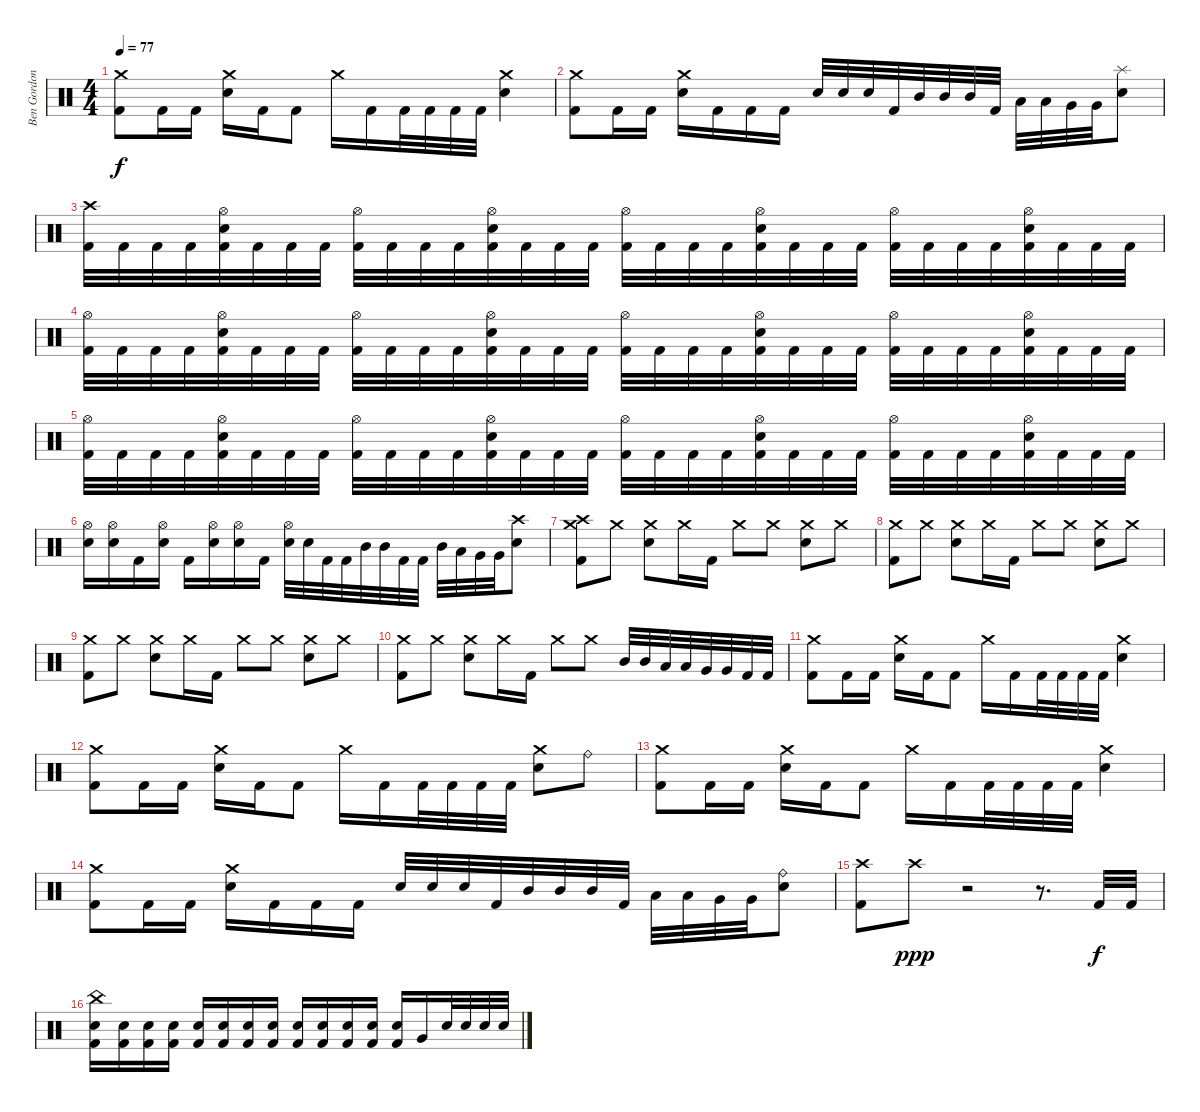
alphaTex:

\track ("Ben Gordon" "Ben Gordon") {instrument percussion}
\staff {score}
\articulation defaults
\ts (4 4)
\tempo 77
\clef neutral
\ks c
("Crash medium (hit)" "Kick (hit) 2").8{dy f} "Kick (hit) 2".16 "Kick (hit) 2".16 ("Crash medium (hit)" "Electric Snare (hit)").16 "Kick (hit) 2".16 "Kick (hit) 2".8 "Crash medium (hit)".16 "Kick (hit) 2".16 "Kick (hit) 2".32 "Kick (hit) 2".32 "Kick (hit) 2".32 "Kick (hit) 2".32 ("Crash medium (hit)" "Electric Snare (hit)").4 |
("Crash medium (hit)" "Kick (hit) 2").8 "Kick (hit) 2".16 "Kick (hit) 2".16 ("Crash medium (hit)" "Electric Snare (hit)").16 "Kick (hit) 2".16 "Kick (hit) 2".16 "Kick (hit) 2".16 "Electric Snare (hit)".32 "Electric Snare (hit)".32 "Electric Snare (hit)".32 "Kick (hit) 2".32 "Mid Tom (hit)".32 "Mid Tom (hit)".32 "Mid Tom (hit)".32 "Kick (hit) 2".32 "Low Tom (hit)".32 "Low Tom (hit)".32 "Very Low Tom (hit)".32 "Very Low Tom (hit)".32 ("Splash (hit)" "Electric Snare (hit)").8 |
("Crash high (hit)" "Kick (hit) 2").32 "Kick (hit) 2".32 "Kick (hit) 2".32 "Kick (hit) 2".32 ("Hi-Hat (open)" "Electric Snare (hit)" "Kick (hit) 2").32 "Kick (hit) 2".32 "Kick (hit) 2".32 "Kick (hit) 2".32 ("Hi-Hat (open)" "Kick (hit) 2").32 "Kick (hit) 2".32 "Kick (hit) 2".32 "Kick (hit) 2".32 ("Hi-Hat (open)" "Electric Snare (hit)" "Kick (hit) 2").32 "Kick (hit) 2".32 "Kick (hit) 2".32 "Kick (hit) 2".32 ("Hi-Hat (open)" "Kick (hit) 2").32 "Kick (hit) 2".32 "Kick (hit) 2".32 "Kick (hit) 2".32 ("Hi-Hat (open)" "Electric Snare (hit)" "Kick (hit) 2").32 "Kick (hit) 2".32 "Kick (hit) 2".32 "Kick (hit) 2".32 ("Hi-Hat (open)" "Kick (hit) 2").32 "Kick (hit) 2".32 "Kick (hit) 2".32 "Kick (hit) 2".32 ("Hi-Hat (open)" "Electric Snare (hit)" "Kick (hit) 2").32 "Kick (hit) 2".32 "Kick (hit) 2".32 "Kick (hit) 2".32 |
("Hi-Hat (open)" "Kick (hit) 2").32 "Kick (hit) 2".32 "Kick (hit) 2".32 "Kick (hit) 2".32 ("Hi-Hat (open)" "Electric Snare (hit)" "Kick (hit) 2").32 "Kick (hit) 2".32 "Kick (hit) 2".32 "Kick (hit) 2".32 ("Hi-Hat (open)" "Kick (hit) 2").32 "Kick (hit) 2".32 "Kick (hit) 2".32 "Kick (hit) 2".32 ("Hi-Hat (open)" "Electric Snare (hit)" "Kick (hit) 2").32 "Kick (hit) 2".32 "Kick (hit) 2".32 "Kick (hit) 2".32 ("Hi-Hat (open)" "Kick (hit) 2").32 "Kick (hit) 2".32 "Kick (hit) 2".32 "Kick (hit) 2".32 ("Hi-Hat (open)" "Electric Snare (hit)" "Kick (hit) 2").32 "Kick (hit) 2".32 "Kick (hit) 2".32 "Kick (hit) 2".32 ("Hi-Hat (open)" "Kick (hit) 2").32 "Kick (hit) 2".32 "Kick (hit) 2".32 "Kick (hit) 2".32 ("Hi-Hat (open)" "Electric Snare (hit)" "Kick (hit) 2").32 "Kick (hit) 2".32 "Kick (hit) 2".32 "Kick (hit) 2".32 |
("Hi-Hat (open)" "Kick (hit) 2").32 "Kick (hit) 2".32 "Kick (hit) 2".32 "Kick (hit) 2".32 ("Hi-Hat (open)" "Electric Snare (hit)" "Kick (hit) 2").32 "Kick (hit) 2".32 "Kick (hit) 2".32 "Kick (hit) 2".32 ("Hi-Hat (open)" "Kick (hit) 2").32 "Kick (hit) 2".32 "Kick (hit) 2".32 "Kick (hit) 2".32 ("Hi-Hat (open)" "Electric Snare (hit)" "Kick (hit) 2").32 "Kick (hit) 2".32 "Kick (hit) 2".32 "Kick (hit) 2".32 ("Hi-Hat (open)" "Kick (hit) 2").32 "Kick (hit) 2".32 "Kick (hit) 2".32 "Kick (hit) 2".32 ("Hi-Hat (open)" "Electric Snare (hit)" "Kick (hit) 2").32 "Kick (hit) 2".32 "Kick (hit) 2".32 "Kick (hit) 2".32 ("Hi-Hat (open)" "Kick (hit) 2").32 "Kick (hit) 2".32 "Kick (hit) 2".32 "Kick (hit) 2".32 ("Hi-Hat (open)" "Electric Snare (hit)" "Kick (hit) 2").32 "Kick (hit) 2".32 "Kick (hit) 2".32 "Kick (hit) 2".32 |
("Hi-Hat (open)" "Electric Snare (hit)").16 ("Hi-Hat (open)" "Electric Snare (hit)").16 "Kick (hit) 2".16 ("Hi-Hat (open)" "Electric Snare (hit)").16 "Kick (hit) 2".16 ("Hi-Hat (open)" "Electric Snare (hit)").16 ("Hi-Hat (open)" "Electric Snare (hit)").16 "Kick (hit) 2".16 ("Hi-Hat (open)" "Electric Snare (hit)").32 "Electric Snare (hit)".32 "Kick (hit) 2".32 "Kick (hit) 2".32 "Mid Tom (hit)".32 "Mid Tom (hit)".32 "Kick (hit) 2".32 "Kick (hit) 2".32 "Mid Tom (hit)".32 "Low Tom (hit)".32 "Very Low Tom (hit)".32 "Very Low Tom (hit)".32 ("Crash high (hit)" "Electric Snare (hit)").8 |
("Crash high (hit)" "Crash medium (hit)" "Kick (hit) 2").8 "Crash medium (hit)".8 ("Crash medium (hit)" "Electric Snare (hit)").8 "Crash medium (hit)".16 "Kick (hit) 2".16 "Crash medium (hit)".8 "Crash medium (hit)".8 ("Crash medium (hit)" "Electric Snare (hit)").8 "Crash medium (hit)".8 |
("Crash medium (hit)" "Kick (hit) 2").8 "Crash medium (hit)".8 ("Crash medium (hit)" "Electric Snare (hit)").8 "Crash medium (hit)".16 "Kick (hit) 2".16 "Crash medium (hit)".8 "Crash medium (hit)".8 ("Crash medium (hit)" "Electric Snare (hit)").8 "Crash medium (hit)".8 |
("Crash medium (hit)" "Kick (hit) 2").8 "Crash medium (hit)".8 ("Crash medium (hit)" "Electric Snare (hit)").8 "Crash medium (hit)".16 "Kick (hit) 2".16 "Crash medium (hit)".8 "Crash medium (hit)".8 ("Crash medium (hit)" "Electric Snare (hit)").8 "Crash medium (hit)".8 |
("Crash medium (hit)" "Kick (hit) 2").8 "Crash medium (hit)".8 ("Crash medium (hit)" "Electric Snare (hit)").8 "Crash medium (hit)".16 "Kick (hit) 2".16 "Crash medium (hit)".8 "Crash medium (hit)".8 "Mid Tom (hit)".32 "Mid Tom (hit)".32 "Low Tom (hit)".32 "Low Tom (hit)".32 "Very Low Tom (hit)".32 "Very Low Tom (hit)".32 "Kick (hit) 2".32 "Kick (hit) 2".32 |
("Crash medium (hit)" "Kick (hit) 2").8 "Kick (hit) 2".16 "Kick (hit) 2".16 ("Crash medium (hit)" "Electric Snare (hit)").16 "Kick (hit) 2".16 "Kick (hit) 2".8 "Crash medium (hit)".16 "Kick (hit) 2".16 "Kick (hit) 2".32 "Kick (hit) 2".32 "Kick (hit) 2".32 "Kick (hit) 2".32 ("Crash medium (hit)" "Electric Snare (hit)").4 |
("Crash medium (hit)" "Kick (hit) 2").8 "Kick (hit) 2".16 "Kick (hit) 2".16 ("Crash medium (hit)" "Electric Snare (hit)").16 "Kick (hit) 2".16 "Kick (hit) 2".8 "Crash medium (hit)".16 "Kick (hit) 2".16 "Kick (hit) 2".32 "Kick (hit) 2".32 "Kick (hit) 2".32 "Kick (hit) 2".32 ("Crash medium (hit)" "Electric Snare (hit)").8 "Ride (bell)".8 |
("Crash medium (hit)" "Kick (hit) 2").8 "Kick (hit) 2".16 "Kick (hit) 2".16 ("Crash medium (hit)" "Electric Snare (hit)").16 "Kick (hit) 2".16 "Kick (hit) 2".8 "Crash medium (hit)".16 "Kick (hit) 2".16 "Kick (hit) 2".32 "Kick (hit) 2".32 "Kick (hit) 2".32 "Kick (hit) 2".32 ("Crash medium (hit)" "Electric Snare (hit)").4 |
("Crash medium (hit)" "Kick (hit) 2").8 "Kick (hit) 2".16 "Kick (hit) 2".16 ("Crash medium (hit)" "Electric Snare (hit)").16 "Kick (hit) 2".16 "Kick (hit) 2".16 "Kick (hit) 2".16 "Electric Snare (hit)".32 "Electric Snare (hit)".32 "Electric Snare (hit)".32 "Kick (hit) 2".32 "Mid Tom (hit)".32 "Mid Tom (hit)".32 "Mid Tom (hit)".32 "Kick (hit) 2".32 "Low Tom (hit)".32 "Low Tom (hit)".32 "Very Low Tom (hit)".32 "Very Low Tom (hit)".32 ("Ride (bell)" "Electric Snare (hit)").8 |
("Crash high (hit)" "Kick (hit) 2").8 "Crash high (hit)".8{dy ppp} r.2 r.8{d} "Kick (hit) 2".32{dy f} "Kick (hit) 2".32 |
("China (hit)" "Electric Snare (hit)" "Kick (hit) 2").16 ("Electric Snare (hit)" "Kick (hit) 2").16 ("Electric Snare (hit)" "Kick (hit) 2").16 ("Electric Snare (hit)" "Kick (hit) 2").16 ("Electric Snare (hit)" "Kick (hit) 2").16 ("Electric Snare (hit)" "Kick (hit) 2").16 ("Electric Snare (hit)" "Kick (hit) 2").16 ("Electric Snare (hit)" "Kick (hit) 2").16 ("Electric Snare (hit)" "Kick (hit) 2").16 ("Electric Snare (hit)" "Kick (hit) 2").16 ("Electric Snare (hit)" "Kick (hit) 2").16 ("Electric Snare (hit)" "Kick (hit) 2").16 ("Electric Snare (hit)" "Kick (hit) 2").16 "Very Low Tom (hit)".16 "Electric Snare (hit)".32 "Electric Snare (hit)".32 "Electric Snare (hit)".32 "Electric Snare (hit)".32
